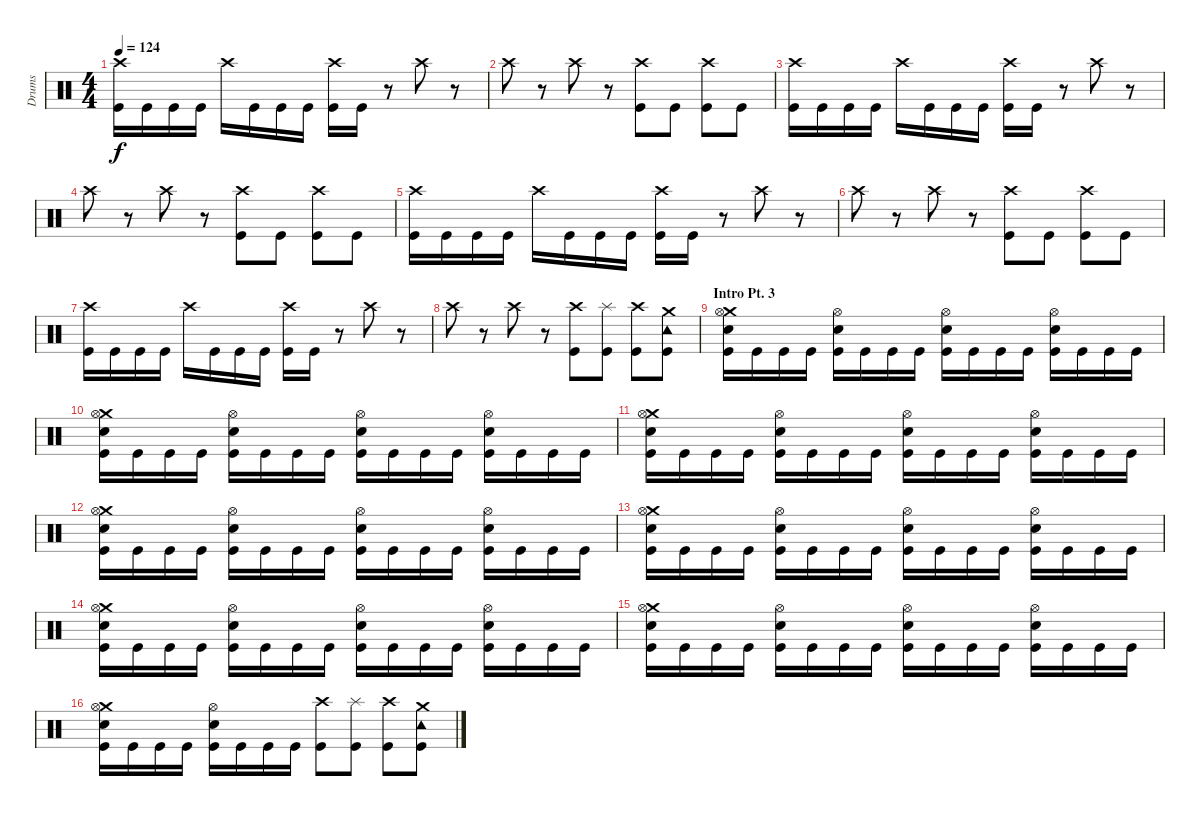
\track ("Drums" "Drums") {instrument percussion}
\staff {score}
\articulation defaults
\ts (4 4)
\tempo 124
\clef neutral
\ks c
("Crash high (hit)" "Kick (hit)").16{dy f} "Kick (hit)".16 "Kick (hit)".16 "Kick (hit)".16 "Crash high (hit)".16 "Kick (hit)".16 "Kick (hit)".16 "Kick (hit)".16 ("Crash high (hit)" "Kick (hit)").16 "Kick (hit)".16 r.8 "Crash high (hit)".8 r.8 |
"Crash high (hit)".8 r.8 "Crash high (hit)".8 r.8 ("Crash high (hit)" "Kick (hit)").8 "Kick (hit)".8 ("Crash high (hit)" "Kick (hit)").8 "Kick (hit)".8 |
("Crash high (hit)" "Kick (hit)").16 "Kick (hit)".16 "Kick (hit)".16 "Kick (hit)".16 "Crash high (hit)".16 "Kick (hit)".16 "Kick (hit)".16 "Kick (hit)".16 ("Crash high (hit)" "Kick (hit)").16 "Kick (hit)".16 r.8 "Crash high (hit)".8 r.8 |
"Crash high (hit)".8 r.8 "Crash high (hit)".8 r.8 ("Crash high (hit)" "Kick (hit)").8 "Kick (hit)".8 ("Crash high (hit)" "Kick (hit)").8 "Kick (hit)".8 |
("Crash high (hit)" "Kick (hit)").16 "Kick (hit)".16 "Kick (hit)".16 "Kick (hit)".16 "Crash high (hit)".16 "Kick (hit)".16 "Kick (hit)".16 "Kick (hit)".16 ("Crash high (hit)" "Kick (hit)").16 "Kick (hit)".16 r.8 "Crash high (hit)".8 r.8 |
"Crash high (hit)".8 r.8 "Crash high (hit)".8 r.8 ("Crash high (hit)" "Kick (hit)").8 "Kick (hit)".8 ("Crash high (hit)" "Kick (hit)").8 "Kick (hit)".8 |
("Crash high (hit)" "Kick (hit)").16 "Kick (hit)".16 "Kick (hit)".16 "Kick (hit)".16 "Crash high (hit)".16 "Kick (hit)".16 "Kick (hit)".16 "Kick (hit)".16 ("Crash high (hit)" "Kick (hit)").16 "Kick (hit)".16 r.8 "Crash high (hit)".8 r.8 |
"Crash high (hit)".8 r.8 "Crash high (hit)".8 r.8 ("Crash high (hit)" "Kick (hit)").8 ("Splash (hit)" "Kick (hit)").8 ("Crash high (hit)" "Kick (hit)").8 ("Tambourine (hit)" "Crash medium (hit)" "Kick (hit)").8 |
\section ("" "Intro Pt. 3")
("Crash medium (hit)" "Electric Snare (hit)" "Hi-Hat (open)" "Kick (hit)").16 "Kick (hit)".16 "Kick (hit)".16 "Kick (hit)".16 ("Electric Snare (hit)" "Hi-Hat (open)" "Kick (hit)").16 "Kick (hit)".16 "Kick (hit)".16 "Kick (hit)".16 ("Electric Snare (hit)" "Hi-Hat (open)" "Kick (hit)").16 "Kick (hit)".16 "Kick (hit)".16 "Kick (hit)".16 ("Hi-Hat (open)" "Electric Snare (hit)" "Kick (hit)").16 "Kick (hit)".16 "Kick (hit)".16 "Kick (hit)".16 |
("Crash medium (hit)" "Electric Snare (hit)" "Hi-Hat (open)" "Kick (hit)").16 "Kick (hit)".16 "Kick (hit)".16 "Kick (hit)".16 ("Electric Snare (hit)" "Hi-Hat (open)" "Kick (hit)").16 "Kick (hit)".16 "Kick (hit)".16 "Kick (hit)".16 ("Electric Snare (hit)" "Hi-Hat (open)" "Kick (hit)").16 "Kick (hit)".16 "Kick (hit)".16 "Kick (hit)".16 ("Hi-Hat (open)" "Electric Snare (hit)" "Kick (hit)").16 "Kick (hit)".16 "Kick (hit)".16 "Kick (hit)".16 |
("Crash medium (hit)" "Electric Snare (hit)" "Hi-Hat (open)" "Kick (hit)").16 "Kick (hit)".16 "Kick (hit)".16 "Kick (hit)".16 ("Electric Snare (hit)" "Hi-Hat (open)" "Kick (hit)").16 "Kick (hit)".16 "Kick (hit)".16 "Kick (hit)".16 ("Electric Snare (hit)" "Hi-Hat (open)" "Kick (hit)").16 "Kick (hit)".16 "Kick (hit)".16 "Kick (hit)".16 ("Hi-Hat (open)" "Electric Snare (hit)" "Kick (hit)").16 "Kick (hit)".16 "Kick (hit)".16 "Kick (hit)".16 |
("Crash medium (hit)" "Electric Snare (hit)" "Hi-Hat (open)" "Kick (hit)").16 "Kick (hit)".16 "Kick (hit)".16 "Kick (hit)".16 ("Electric Snare (hit)" "Hi-Hat (open)" "Kick (hit)").16 "Kick (hit)".16 "Kick (hit)".16 "Kick (hit)".16 ("Electric Snare (hit)" "Hi-Hat (open)" "Kick (hit)").16 "Kick (hit)".16 "Kick (hit)".16 "Kick (hit)".16 ("Hi-Hat (open)" "Electric Snare (hit)" "Kick (hit)").16 "Kick (hit)".16 "Kick (hit)".16 "Kick (hit)".16 |
("Crash medium (hit)" "Electric Snare (hit)" "Hi-Hat (open)" "Kick (hit)").16 "Kick (hit)".16 "Kick (hit)".16 "Kick (hit)".16 ("Electric Snare (hit)" "Hi-Hat (open)" "Kick (hit)").16 "Kick (hit)".16 "Kick (hit)".16 "Kick (hit)".16 ("Electric Snare (hit)" "Hi-Hat (open)" "Kick (hit)").16 "Kick (hit)".16 "Kick (hit)".16 "Kick (hit)".16 ("Hi-Hat (open)" "Electric Snare (hit)" "Kick (hit)").16 "Kick (hit)".16 "Kick (hit)".16 "Kick (hit)".16 |
("Crash medium (hit)" "Electric Snare (hit)" "Hi-Hat (open)" "Kick (hit)").16 "Kick (hit)".16 "Kick (hit)".16 "Kick (hit)".16 ("Electric Snare (hit)" "Hi-Hat (open)" "Kick (hit)").16 "Kick (hit)".16 "Kick (hit)".16 "Kick (hit)".16 ("Electric Snare (hit)" "Hi-Hat (open)" "Kick (hit)").16 "Kick (hit)".16 "Kick (hit)".16 "Kick (hit)".16 ("Hi-Hat (open)" "Electric Snare (hit)" "Kick (hit)").16 "Kick (hit)".16 "Kick (hit)".16 "Kick (hit)".16 |
("Crash medium (hit)" "Electric Snare (hit)" "Hi-Hat (open)" "Kick (hit)").16 "Kick (hit)".16 "Kick (hit)".16 "Kick (hit)".16 ("Electric Snare (hit)" "Hi-Hat (open)" "Kick (hit)").16 "Kick (hit)".16 "Kick (hit)".16 "Kick (hit)".16 ("Electric Snare (hit)" "Hi-Hat (open)" "Kick (hit)").16 "Kick (hit)".16 "Kick (hit)".16 "Kick (hit)".16 ("Hi-Hat (open)" "Electric Snare (hit)" "Kick (hit)").16 "Kick (hit)".16 "Kick (hit)".16 "Kick (hit)".16 |
("Crash medium (hit)" "Electric Snare (hit)" "Hi-Hat (open)" "Kick (hit)").16 "Kick (hit)".16 "Kick (hit)".16 "Kick (hit)".16 ("Electric Snare (hit)" "Hi-Hat (open)" "Kick (hit)").16 "Kick (hit)".16 "Kick (hit)".16 "Kick (hit)".16 ("Crash high (hit)" "Kick (hit)").8 ("Splash (hit)" "Kick (hit)").8 ("Crash high (hit)" "Kick (hit)").8 ("Tambourine (hit)" "Crash medium (hit)" "Kick (hit)").8
